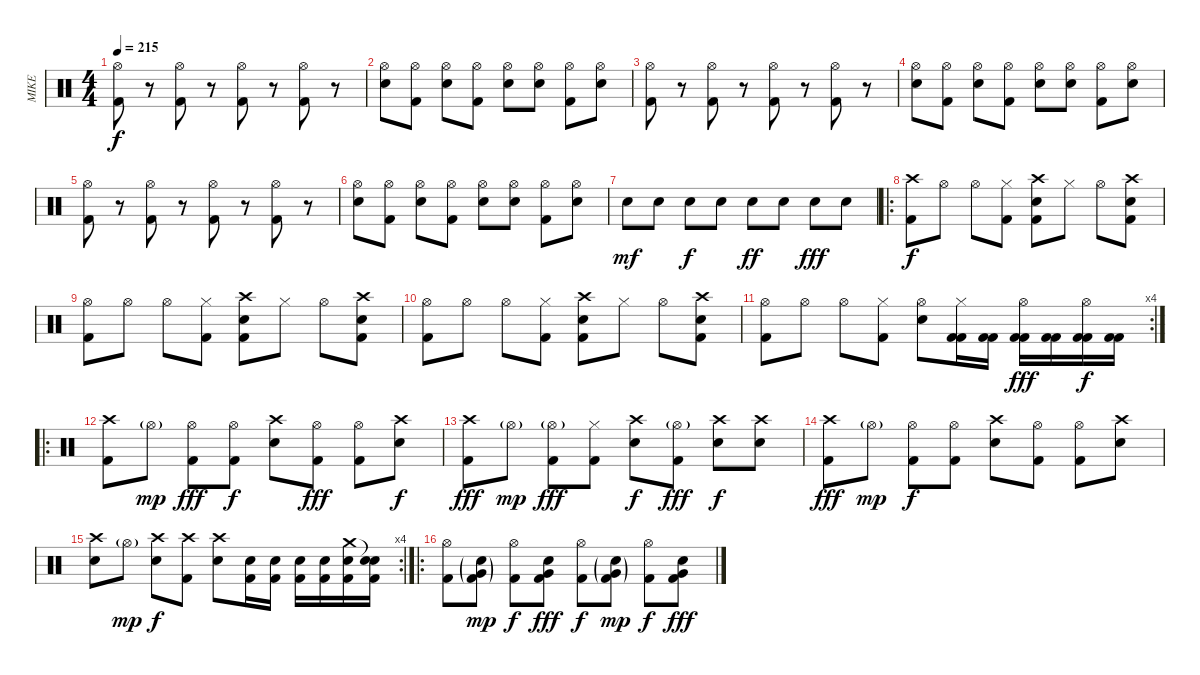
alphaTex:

\track ("MIKE" "MIKE") {instrument percussion}
\staff {score}
\articulation defaults
\ts (4 4)
\tempo 215
\clef neutral
\ks c
("Kick (hit) 2" "Hi-Hat (open)").8{dy f} r.8 ("Kick (hit) 2" "Hi-Hat (open)").8 r.8 ("Kick (hit) 2" "Hi-Hat (open)").8 r.8 ("Kick (hit) 2" "Hi-Hat (open)").8 r.8 |
("Snare (hit) 2" "Hi-Hat (open)").8 ("Kick (hit) 2" "Hi-Hat (open)").8 ("Snare (hit) 2" "Hi-Hat (open)").8 ("Kick (hit) 2" "Hi-Hat (open)").8 ("Snare (hit) 2" "Hi-Hat (open)").8 ("Snare (hit) 2" "Hi-Hat (open)").8 ("Kick (hit) 2" "Hi-Hat (open)").8 ("Snare (hit) 2" "Hi-Hat (open)").8 |
("Kick (hit) 2" "Hi-Hat (open)").8 r.8 ("Kick (hit) 2" "Hi-Hat (open)").8 r.8 ("Kick (hit) 2" "Hi-Hat (open)").8 r.8 ("Kick (hit) 2" "Hi-Hat (open)").8 r.8 |
("Snare (hit) 2" "Hi-Hat (open)").8 ("Kick (hit) 2" "Hi-Hat (open)").8 ("Snare (hit) 2" "Hi-Hat (open)").8 ("Kick (hit) 2" "Hi-Hat (open)").8 ("Snare (hit) 2" "Hi-Hat (open)").8 ("Snare (hit) 2" "Hi-Hat (open)").8 ("Kick (hit) 2" "Hi-Hat (open)").8 ("Snare (hit) 2" "Hi-Hat (open)").8 |
("Kick (hit) 2" "Hi-Hat (open)").8 r.8 ("Kick (hit) 2" "Hi-Hat (open)").8 r.8 ("Kick (hit) 2" "Hi-Hat (open)").8 r.8 ("Kick (hit) 2" "Hi-Hat (open)").8 r.8 |
("Snare (hit) 2" "Hi-Hat (open)").8 ("Kick (hit) 2" "Hi-Hat (open)").8 ("Snare (hit) 2" "Hi-Hat (open)").8 ("Kick (hit) 2" "Hi-Hat (open)").8 ("Snare (hit) 2" "Hi-Hat (open)").8 ("Snare (hit) 2" "Hi-Hat (open)").8 ("Kick (hit) 2" "Hi-Hat (open)").8 ("Snare (hit) 2" "Hi-Hat (open)").8 |
"Electric Snare (hit)".8{dy mf} "Electric Snare (hit)".8 "Electric Snare (hit)".8{dy f} "Electric Snare (hit)".8 "Electric Snare (hit)".8{dy ff} "Electric Snare (hit)".8 "Electric Snare (hit)".8{dy fff} "Electric Snare (hit)".8 |
\ro
("Crash high (hit)" "Kick (hit) 2").8{dy f} "Hi-Hat (open)".8 "Hi-Hat (open)".8 ("Hi-Hat (closed)" "Kick (hit) 2").8 ("Kick (hit) 2" "Crash high (hit)" "Electric Snare (hit)").8 "Hi-Hat (closed)".8 "Hi-Hat (open)".8 ("Kick (hit) 2" "Crash high (hit)" "Electric Snare (hit)").8 |
("Hi-Hat (open)" "Kick (hit) 2").8 "Hi-Hat (open)".8 "Hi-Hat (open)".8 ("Hi-Hat (closed)" "Kick (hit) 2").8 ("Kick (hit) 2" "Crash high (hit)" "Electric Snare (hit)").8 "Hi-Hat (closed)".8 "Hi-Hat (open)".8 ("Kick (hit) 2" "Crash high (hit)" "Electric Snare (hit)").8 |
("Hi-Hat (open)" "Kick (hit) 2").8 "Hi-Hat (open)".8 "Hi-Hat (open)".8 ("Hi-Hat (closed)" "Kick (hit) 2").8 ("Kick (hit) 2" "Crash high (hit)" "Electric Snare (hit)").8 "Hi-Hat (closed)".8 "Hi-Hat (open)".8 ("Kick (hit) 2" "Crash high (hit)" "Electric Snare (hit)").8 |
\rc 4
("Hi-Hat (open)" "Kick (hit) 2").8 "Hi-Hat (open)".8 "Hi-Hat (open)".8 ("Hi-Hat (closed)" "Kick (hit) 2").8 ("Hi-Hat (open)" "Electric Snare (hit)").8 ("Kick (hit) 2" "Hi-Hat (closed)" "Kick (hit) 2").16 ("Kick (hit) 2" "Kick (hit) 2").16 ("Kick (hit) 2" "Hi-Hat (open)" "Kick (hit) 2").16{dy fff} ("Kick (hit) 2" "Kick (hit) 2").16 ("Kick (hit) 2" "Hi-Hat (open)" "Kick (hit) 2").16{dy f} ("Kick (hit) 2" "Kick (hit) 2").16 |
\ro
("Crash high (hit)" "Kick (hit) 2").8 "Hi-Hat (open)"{g}.8{dy mp} ("Hi-Hat (open)" "Kick (hit) 2").8{dy fff} ("Hi-Hat (open)" "Kick (hit) 2").8{dy f} ("Crash high (hit)" "Electric Snare (hit)").8 ("Hi-Hat (open)" "Kick (hit) 2").8{dy fff} ("Hi-Hat (open)" "Kick (hit) 2").8 ("Crash high (hit)" "Electric Snare (hit)").8{dy f} |
("Crash high (hit)" "Kick (hit) 2").8{dy fff} "Hi-Hat (open)"{g}.8{dy mp} ("Hi-Hat (open)"{g} "Kick (hit) 2").8{dy fff} ("Hi-Hat (closed)" "Kick (hit) 2").8 ("Crash high (hit)" "Electric Snare (hit)").8{dy f} ("Hi-Hat (open)"{g} "Kick (hit) 2").8{dy fff} ("Crash high (hit)" "Electric Snare (hit)").8{dy f} ("Crash high (hit)" "Electric Snare (hit)").8 |
("Crash high (hit)" "Kick (hit) 2").8{dy fff} "Hi-Hat (open)"{g}.8{dy mp} ("Hi-Hat (open)" "Kick (hit) 2").8{dy f} ("Hi-Hat (open)" "Kick (hit) 2").8 ("Crash high (hit)" "Electric Snare (hit)").8 ("Hi-Hat (open)" "Kick (hit) 2").8 ("Hi-Hat (open)" "Kick (hit) 2").8 ("Crash high (hit)" "Electric Snare (hit)").8 |
\rc 4
("Crash high (hit)" "Electric Snare (hit)").8 "Hi-Hat (open)"{g}.8{dy mp} ("Crash high (hit)" "Electric Snare (hit)").8{dy f} ("Crash high (hit)" "Kick (hit) 2").8 ("Crash high (hit)" "Electric Snare (hit)").8 ("Electric Snare (hit)" "Kick (hit) 2").16 ("Electric Snare (hit)" "Kick (hit) 2").16 ("Electric Snare (hit)" "Kick (hit) 2").16 ("Electric Snare (hit)" "Kick (hit) 2").16 ("Crash medium (hit)" "Electric Snare (hit)" "Kick (hit) 2").16 ("Snare (hit)"{t} "Electric Snare (hit)" "Kick (hit) 2").16 |
\ro
("Kick (hit) 2" "Hi-Hat (open)").8 ("Very Low Tom (hit)"{g} "Kick (hit) 2"{g} "Electric Snare (hit)"{g}).8{dy mp} ("Kick (hit) 2" "Hi-Hat (open)").8{dy f} ("Very Low Tom (hit)" "Kick (hit) 2" "Electric Snare (hit)").8{dy fff} ("Kick (hit) 2" "Hi-Hat (open)").8{dy f} ("Very Low Tom (hit)"{g} "Kick (hit) 2"{g} "Electric Snare (hit)"{g}).8{dy mp} ("Kick (hit) 2" "Hi-Hat (open)").8{dy f} ("Very Low Tom (hit)" "Kick (hit) 2" "Electric Snare (hit)").8{dy fff}
